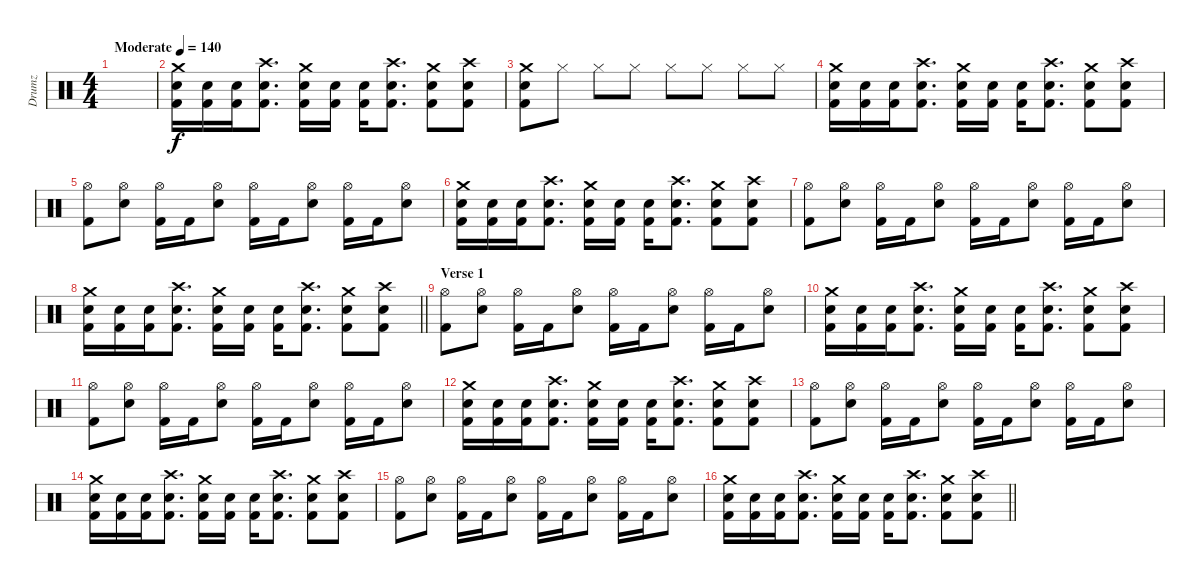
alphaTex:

\track ("Drumz" "Drumz") {instrument percussion}
\staff {score}
\articulation defaults
\ts (4 4)
\tempo (140 "Moderate")
\clef neutral
\ks c
|
("Crash medium (hit)" "Electric Snare (hit)" "Kick (hit) 2").16 ("Electric Snare (hit)" "Kick (hit) 2").16 ("Electric Snare (hit)" "Kick (hit) 2").16 ("Crash high (hit)" "Electric Snare (hit)" "Kick (hit) 2").8{d} ("Crash medium (hit)" "Electric Snare (hit)" "Kick (hit) 2").16 ("Electric Snare (hit)" "Kick (hit) 2").16 ("Electric Snare (hit)" "Kick (hit) 2").16 ("Crash high (hit)" "Electric Snare (hit)" "Kick (hit) 2").8{d} ("Crash medium (hit)" "Electric Snare (hit)" "Kick (hit) 2").8 ("Crash high (hit)" "Electric Snare (hit)" "Kick (hit) 2").8 |
("Crash medium (hit)" "Electric Snare (hit)" "Kick (hit) 2").8 "Hi-Hat (closed)".8 "Hi-Hat (closed)".8 "Hi-Hat (closed)".8 "Hi-Hat (closed)".8 "Hi-Hat (closed)".8 "Hi-Hat (closed)".8 "Hi-Hat (closed)".8 |
("Crash medium (hit)" "Electric Snare (hit)" "Kick (hit) 2").16 ("Electric Snare (hit)" "Kick (hit) 2").16 ("Electric Snare (hit)" "Kick (hit) 2").16 ("Crash high (hit)" "Electric Snare (hit)" "Kick (hit) 2").8{d} ("Crash medium (hit)" "Electric Snare (hit)" "Kick (hit) 2").16 ("Electric Snare (hit)" "Kick (hit) 2").16 ("Electric Snare (hit)" "Kick (hit) 2").16 ("Crash high (hit)" "Electric Snare (hit)" "Kick (hit) 2").8{d} ("Crash medium (hit)" "Electric Snare (hit)" "Kick (hit) 2").8 ("Crash high (hit)" "Electric Snare (hit)" "Kick (hit) 2").8 |
("Hi-Hat (open)" "Kick (hit) 2").8 ("Hi-Hat (open)" "Electric Snare (hit)").8 ("Hi-Hat (open)" "Kick (hit) 2").16 "Kick (hit) 2".16 ("Hi-Hat (open)" "Electric Snare (hit)").8 ("Hi-Hat (open)" "Kick (hit) 2").16 "Kick (hit) 2".16 ("Hi-Hat (open)" "Electric Snare (hit)").8 ("Hi-Hat (open)" "Kick (hit) 2").16 "Kick (hit) 2".16 ("Hi-Hat (open)" "Electric Snare (hit)").8 |
("Crash medium (hit)" "Electric Snare (hit)" "Kick (hit) 2").16 ("Electric Snare (hit)" "Kick (hit) 2").16 ("Electric Snare (hit)" "Kick (hit) 2").16 ("Crash high (hit)" "Electric Snare (hit)" "Kick (hit) 2").8{d} ("Crash medium (hit)" "Electric Snare (hit)" "Kick (hit) 2").16 ("Electric Snare (hit)" "Kick (hit) 2").16 ("Electric Snare (hit)" "Kick (hit) 2").16 ("Crash high (hit)" "Electric Snare (hit)" "Kick (hit) 2").8{d} ("Crash medium (hit)" "Electric Snare (hit)" "Kick (hit) 2").8 ("Crash high (hit)" "Electric Snare (hit)" "Kick (hit) 2").8 |
("Hi-Hat (open)" "Kick (hit) 2").8 ("Hi-Hat (open)" "Electric Snare (hit)").8 ("Hi-Hat (open)" "Kick (hit) 2").16 "Kick (hit) 2".16 ("Hi-Hat (open)" "Electric Snare (hit)").8 ("Hi-Hat (open)" "Kick (hit) 2").16 "Kick (hit) 2".16 ("Hi-Hat (open)" "Electric Snare (hit)").8 ("Hi-Hat (open)" "Kick (hit) 2").16 "Kick (hit) 2".16 ("Hi-Hat (open)" "Electric Snare (hit)").8 |
\barLineRight lightlight
("Crash medium (hit)" "Electric Snare (hit)" "Kick (hit) 2").16 ("Electric Snare (hit)" "Kick (hit) 2").16 ("Electric Snare (hit)" "Kick (hit) 2").16 ("Crash high (hit)" "Electric Snare (hit)" "Kick (hit) 2").8{d} ("Crash medium (hit)" "Electric Snare (hit)" "Kick (hit) 2").16 ("Electric Snare (hit)" "Kick (hit) 2").16 ("Electric Snare (hit)" "Kick (hit) 2").16 ("Crash high (hit)" "Electric Snare (hit)" "Kick (hit) 2").8{d} ("Crash medium (hit)" "Electric Snare (hit)" "Kick (hit) 2").8 ("Crash high (hit)" "Electric Snare (hit)" "Kick (hit) 2").8 |
\section ("" "Verse 1")
("Hi-Hat (open)" "Kick (hit) 2").8 ("Hi-Hat (open)" "Electric Snare (hit)").8 ("Hi-Hat (open)" "Kick (hit) 2").16 "Kick (hit) 2".16 ("Hi-Hat (open)" "Electric Snare (hit)").8 ("Hi-Hat (open)" "Kick (hit) 2").16 "Kick (hit) 2".16 ("Hi-Hat (open)" "Electric Snare (hit)").8 ("Hi-Hat (open)" "Kick (hit) 2").16 "Kick (hit) 2".16 ("Hi-Hat (open)" "Electric Snare (hit)").8 |
("Crash medium (hit)" "Electric Snare (hit)" "Kick (hit) 2").16 ("Electric Snare (hit)" "Kick (hit) 2").16 ("Electric Snare (hit)" "Kick (hit) 2").16 ("Crash high (hit)" "Electric Snare (hit)" "Kick (hit) 2").8{d} ("Crash medium (hit)" "Electric Snare (hit)" "Kick (hit) 2").16 ("Electric Snare (hit)" "Kick (hit) 2").16 ("Electric Snare (hit)" "Kick (hit) 2").16 ("Crash high (hit)" "Electric Snare (hit)" "Kick (hit) 2").8{d} ("Crash medium (hit)" "Electric Snare (hit)" "Kick (hit) 2").8 ("Crash high (hit)" "Electric Snare (hit)" "Kick (hit) 2").8 |
("Hi-Hat (open)" "Kick (hit) 2").8 ("Hi-Hat (open)" "Electric Snare (hit)").8 ("Hi-Hat (open)" "Kick (hit) 2").16 "Kick (hit) 2".16 ("Hi-Hat (open)" "Electric Snare (hit)").8 ("Hi-Hat (open)" "Kick (hit) 2").16 "Kick (hit) 2".16 ("Hi-Hat (open)" "Electric Snare (hit)").8 ("Hi-Hat (open)" "Kick (hit) 2").16 "Kick (hit) 2".16 ("Hi-Hat (open)" "Electric Snare (hit)").8 |
("Crash medium (hit)" "Electric Snare (hit)" "Kick (hit) 2").16 ("Electric Snare (hit)" "Kick (hit) 2").16 ("Electric Snare (hit)" "Kick (hit) 2").16 ("Crash high (hit)" "Electric Snare (hit)" "Kick (hit) 2").8{d} ("Crash medium (hit)" "Electric Snare (hit)" "Kick (hit) 2").16 ("Electric Snare (hit)" "Kick (hit) 2").16 ("Electric Snare (hit)" "Kick (hit) 2").16 ("Crash high (hit)" "Electric Snare (hit)" "Kick (hit) 2").8{d} ("Crash medium (hit)" "Electric Snare (hit)" "Kick (hit) 2").8 ("Crash high (hit)" "Electric Snare (hit)" "Kick (hit) 2").8 |
("Hi-Hat (open)" "Kick (hit) 2").8 ("Hi-Hat (open)" "Electric Snare (hit)").8 ("Hi-Hat (open)" "Kick (hit) 2").16 "Kick (hit) 2".16 ("Hi-Hat (open)" "Electric Snare (hit)").8 ("Hi-Hat (open)" "Kick (hit) 2").16 "Kick (hit) 2".16 ("Hi-Hat (open)" "Electric Snare (hit)").8 ("Hi-Hat (open)" "Kick (hit) 2").16 "Kick (hit) 2".16 ("Hi-Hat (open)" "Electric Snare (hit)").8 |
("Crash medium (hit)" "Electric Snare (hit)" "Kick (hit) 2").16 ("Electric Snare (hit)" "Kick (hit) 2").16 ("Electric Snare (hit)" "Kick (hit) 2").16 ("Crash high (hit)" "Electric Snare (hit)" "Kick (hit) 2").8{d} ("Crash medium (hit)" "Electric Snare (hit)" "Kick (hit) 2").16 ("Electric Snare (hit)" "Kick (hit) 2").16 ("Electric Snare (hit)" "Kick (hit) 2").16 ("Crash high (hit)" "Electric Snare (hit)" "Kick (hit) 2").8{d} ("Crash medium (hit)" "Electric Snare (hit)" "Kick (hit) 2").8 ("Crash high (hit)" "Electric Snare (hit)" "Kick (hit) 2").8 |
("Hi-Hat (open)" "Kick (hit) 2").8 ("Hi-Hat (open)" "Electric Snare (hit)").8 ("Hi-Hat (open)" "Kick (hit) 2").16 "Kick (hit) 2".16 ("Hi-Hat (open)" "Electric Snare (hit)").8 ("Hi-Hat (open)" "Kick (hit) 2").16 "Kick (hit) 2".16 ("Hi-Hat (open)" "Electric Snare (hit)").8 ("Hi-Hat (open)" "Kick (hit) 2").16 "Kick (hit) 2".16 ("Hi-Hat (open)" "Electric Snare (hit)").8 |
\barLineRight lightlight
("Crash medium (hit)" "Electric Snare (hit)" "Kick (hit) 2").16 ("Electric Snare (hit)" "Kick (hit) 2").16 ("Electric Snare (hit)" "Kick (hit) 2").16 ("Crash high (hit)" "Electric Snare (hit)" "Kick (hit) 2").8{d} ("Crash medium (hit)" "Electric Snare (hit)" "Kick (hit) 2").16 ("Electric Snare (hit)" "Kick (hit) 2").16 ("Electric Snare (hit)" "Kick (hit) 2").16 ("Crash high (hit)" "Electric Snare (hit)" "Kick (hit) 2").8{d} ("Crash medium (hit)" "Electric Snare (hit)" "Kick (hit) 2").8 ("Crash high (hit)" "Electric Snare (hit)" "Kick (hit) 2").8
